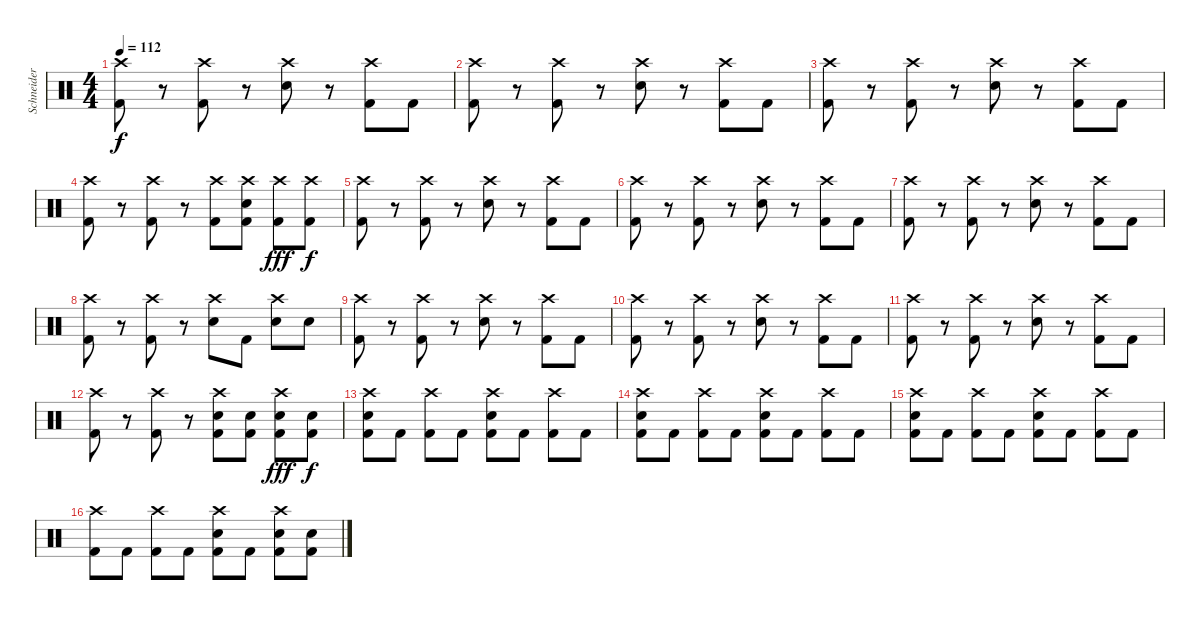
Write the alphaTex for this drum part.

\track ("Schneider - Drums" "Schneider ") {instrument percussion}
\staff {score}
\articulation defaults
\ts (4 4)
\tempo 112
\clef neutral
\ks c
("Crash high (hit)" "Kick (hit) 2").8{dy f} r.8 ("Crash high (hit)" "Kick (hit) 2").8 r.8 ("Crash high (hit)" "Snare (hit) 2").8 r.8 ("Crash high (hit)" "Kick (hit) 2").8 "Kick (hit) 2".8 |
("Crash high (hit)" "Kick (hit) 2").8 r.8 ("Crash high (hit)" "Kick (hit) 2").8 r.8 ("Crash high (hit)" "Snare (hit) 2").8 r.8 ("Crash high (hit)" "Kick (hit) 2").8 "Kick (hit) 2".8 |
("Crash high (hit)" "Kick (hit) 2").8 r.8 ("Crash high (hit)" "Kick (hit) 2").8 r.8 ("Crash high (hit)" "Snare (hit) 2").8 r.8 ("Crash high (hit)" "Kick (hit) 2").8 "Kick (hit) 2".8 |
("Crash high (hit)" "Kick (hit) 2").8 r.8 ("Crash high (hit)" "Kick (hit) 2").8 r.8 ("Crash high (hit)" "Kick (hit) 2").8 ("Crash high (hit)" "Snare (hit) 2" "Kick (hit) 2").8 ("Crash high (hit)" "Kick (hit) 2").8{dy fff} ("Crash high (hit)" "Kick (hit) 2").8{dy f} |
("Crash high (hit)" "Kick (hit) 2").8 r.8 ("Crash high (hit)" "Kick (hit) 2").8 r.8 ("Crash high (hit)" "Snare (hit) 2").8 r.8 ("Crash high (hit)" "Kick (hit) 2").8 "Kick (hit) 2".8 |
("Crash high (hit)" "Kick (hit) 2").8 r.8 ("Crash high (hit)" "Kick (hit) 2").8 r.8 ("Crash high (hit)" "Snare (hit) 2").8 r.8 ("Crash high (hit)" "Kick (hit) 2").8 "Kick (hit) 2".8 |
("Crash high (hit)" "Kick (hit) 2").8 r.8 ("Crash high (hit)" "Kick (hit) 2").8 r.8 ("Crash high (hit)" "Snare (hit) 2").8 r.8 ("Crash high (hit)" "Kick (hit) 2").8 "Kick (hit) 2".8 |
("Crash high (hit)" "Kick (hit) 2").8 r.8 ("Crash high (hit)" "Kick (hit) 2").8 r.8 ("Crash high (hit)" "Snare (hit) 2").8 "Kick (hit) 2".8 ("Crash high (hit)" "Snare (hit) 2").8 "Snare (hit) 2".8 |
("Crash high (hit)" "Kick (hit) 2").8 r.8 ("Crash high (hit)" "Kick (hit) 2").8 r.8 ("Crash high (hit)" "Snare (hit) 2").8 r.8 ("Crash high (hit)" "Kick (hit) 2").8 "Kick (hit) 2".8 |
("Crash high (hit)" "Kick (hit) 2").8 r.8 ("Crash high (hit)" "Kick (hit) 2").8 r.8 ("Crash high (hit)" "Snare (hit) 2").8 r.8 ("Crash high (hit)" "Kick (hit) 2").8 "Kick (hit) 2".8 |
("Crash high (hit)" "Kick (hit) 2").8 r.8 ("Crash high (hit)" "Kick (hit) 2").8 r.8 ("Crash high (hit)" "Snare (hit) 2").8 r.8 ("Crash high (hit)" "Kick (hit) 2").8 "Kick (hit) 2".8 |
("Crash high (hit)" "Kick (hit) 2").8 r.8 ("Crash high (hit)" "Kick (hit) 2").8 r.8 ("Crash high (hit)" "Snare (hit) 2" "Kick (hit) 2").8 ("Snare (hit) 2" "Kick (hit) 2").8 ("Crash high (hit)" "Snare (hit) 2" "Kick (hit) 2").8{dy fff} ("Snare (hit) 2" "Kick (hit) 2").8{dy f} |
("Crash high (hit)" "Snare (hit) 2" "Kick (hit) 2").8 "Kick (hit) 2".8 ("Crash high (hit)" "Kick (hit) 2").8 "Kick (hit) 2".8 ("Crash high (hit)" "Snare (hit) 2" "Kick (hit) 2").8 "Kick (hit) 2".8 ("Crash high (hit)" "Kick (hit) 2").8 "Kick (hit) 2".8 |
("Crash high (hit)" "Snare (hit) 2" "Kick (hit) 2").8 "Kick (hit) 2".8 ("Crash high (hit)" "Kick (hit) 2").8 "Kick (hit) 2".8 ("Crash high (hit)" "Snare (hit) 2" "Kick (hit) 2").8 "Kick (hit) 2".8 ("Crash high (hit)" "Kick (hit) 2").8 "Kick (hit) 2".8 |
("Crash high (hit)" "Snare (hit) 2" "Kick (hit) 2").8 "Kick (hit) 2".8 ("Crash high (hit)" "Kick (hit) 2").8 "Kick (hit) 2".8 ("Crash high (hit)" "Snare (hit) 2" "Kick (hit) 2").8 "Kick (hit) 2".8 ("Crash high (hit)" "Kick (hit) 2").8 "Kick (hit) 2".8 |
("Crash high (hit)" "Kick (hit) 2").8 "Kick (hit) 2".8 ("Crash high (hit)" "Kick (hit) 2").8 "Kick (hit) 2".8 ("Crash high (hit)" "Snare (hit) 2" "Kick (hit) 2").8 "Kick (hit) 2".8 ("Crash high (hit)" "Snare (hit) 2" "Kick (hit) 2").8 ("Snare (hit) 2" "Kick (hit) 2").8
